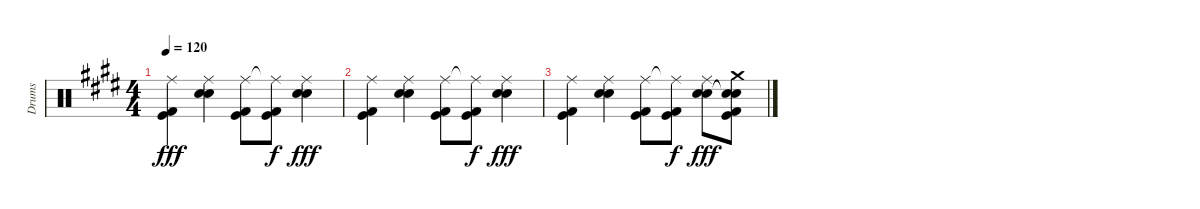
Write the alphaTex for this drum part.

\track ("Drums" "Drums") {instrument percussion}
\staff {score}
\articulation defaults
\ts (4 4)
\tempo 120
\clef neutral
\ks e
("Ride (middle)" "Kick (hit)" "Kick (hit) 2").4{dy fff} ("Ride (middle)" "Electric Snare (hit)" "Snare (hit) 2").4 ("Ride (middle)" "Kick (hit)" "Kick (hit) 2").8 ("Ride (middle)"{t} "Kick (hit)" "Kick (hit) 2").8{dy f} ("Ride (middle)" "Electric Snare (hit)" "Snare (hit) 2").4{dy fff} |
("Ride (middle)" "Kick (hit)" "Kick (hit) 2").4{volume 1} ("Ride (middle)" "Electric Snare (hit)" "Snare (hit) 2").4 ("Ride (middle)" "Kick (hit)" "Kick (hit) 2").8 ("Ride (middle)"{t} "Kick (hit)" "Kick (hit) 2").8{dy f} ("Ride (middle)" "Electric Snare (hit)" "Snare (hit) 2").4{dy fff} |
("Ride (middle)" "Kick (hit)" "Kick (hit) 2").4{volume 0} ("Ride (middle)" "Electric Snare (hit)" "Snare (hit) 2").4 ("Ride (middle)" "Kick (hit)" "Kick (hit) 2").8 ("Ride (middle)"{t} "Kick (hit)" "Kick (hit) 2").8{dy f} ("Ride (middle)" "Electric Snare (hit)" "Snare (hit) 2").8{dy fff} ("Crash medium (hit)" "Snare (hit)"{t} "Snare (hit)"{t} "Kick (hit)" "Kick (hit) 2").8
